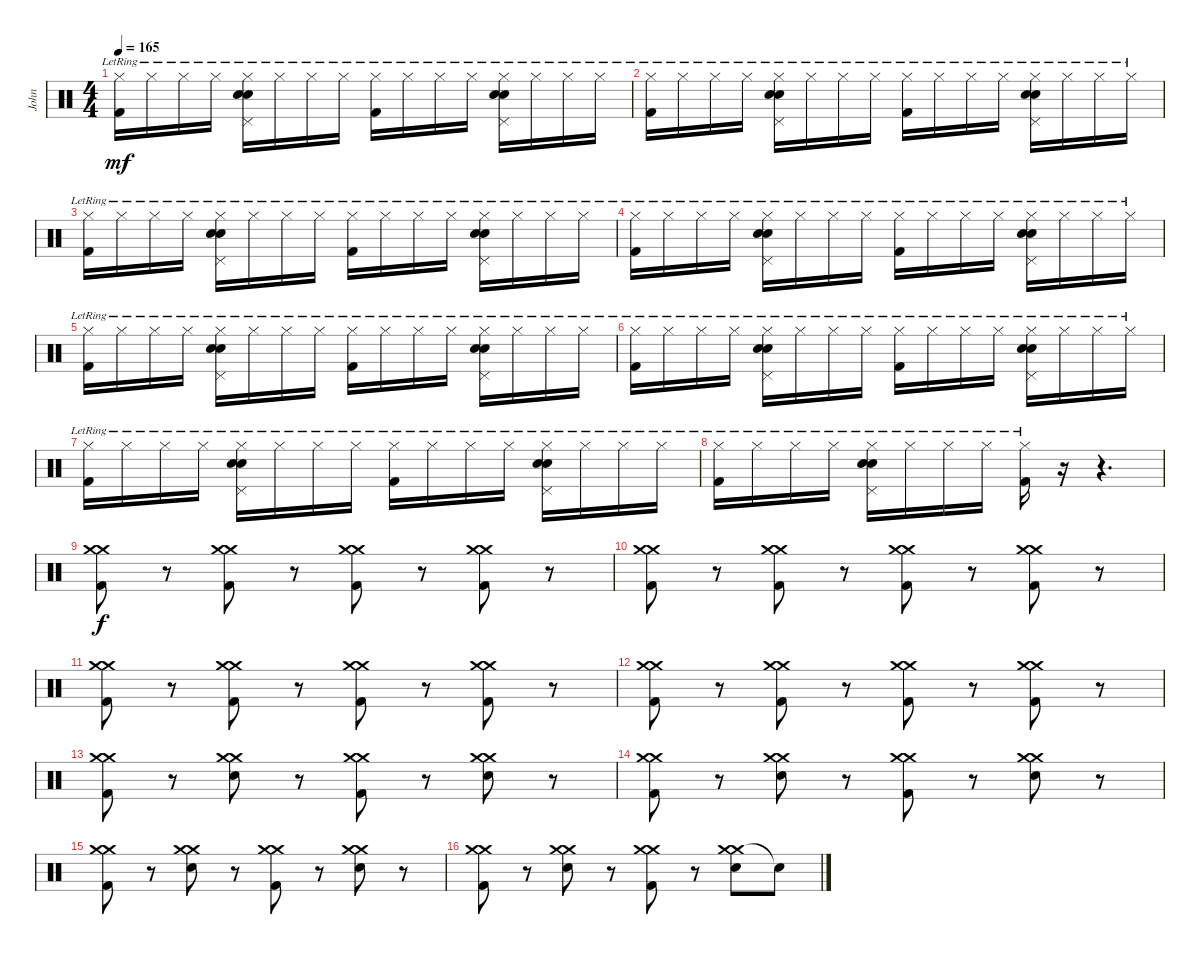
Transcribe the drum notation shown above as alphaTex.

\track ("John" "John") {instrument percussion}
\staff {score}
\articulation defaults
\ts (4 4)
\tempo 165
\clef neutral
\ks c
("Hi-Hat (closed)"{lr} "Kick (hit) 2").16{dy mf} "Hi-Hat (closed)"{lr}.16 "Hi-Hat (closed)"{lr}.16 "Hi-Hat (closed)"{lr}.16 ("Hi-Hat (closed)"{lr} "Pedal Hi-Hat (hit)" "Electric Snare (hit)" "Electric Snare (hit)").16 "Hi-Hat (closed)"{lr}.16 "Hi-Hat (closed)"{lr}.16 "Hi-Hat (closed)"{lr}.16 ("Hi-Hat (closed)"{lr} "Kick (hit) 2").16 "Hi-Hat (closed)"{lr}.16 "Hi-Hat (closed)"{lr}.16 "Hi-Hat (closed)"{lr}.16 ("Hi-Hat (closed)"{lr} "Pedal Hi-Hat (hit)" "Electric Snare (hit)" "Electric Snare (hit)").16 "Hi-Hat (closed)"{lr}.16 "Hi-Hat (closed)"{lr}.16 "Hi-Hat (closed)"{lr}.16 |
("Hi-Hat (closed)"{lr} "Kick (hit) 2").16 "Hi-Hat (closed)"{lr}.16 "Hi-Hat (closed)"{lr}.16 "Hi-Hat (closed)"{lr}.16 ("Hi-Hat (closed)"{lr} "Pedal Hi-Hat (hit)" "Electric Snare (hit)" "Electric Snare (hit)").16 "Hi-Hat (closed)"{lr}.16 "Hi-Hat (closed)"{lr}.16 "Hi-Hat (closed)"{lr}.16 ("Hi-Hat (closed)"{lr} "Kick (hit) 2").16 "Hi-Hat (closed)"{lr}.16 "Hi-Hat (closed)"{lr}.16 "Hi-Hat (closed)"{lr}.16 ("Hi-Hat (closed)"{lr} "Pedal Hi-Hat (hit)" "Electric Snare (hit)" "Electric Snare (hit)").16 "Hi-Hat (closed)"{lr}.16 "Hi-Hat (closed)"{lr}.16 "Hi-Hat (closed)"{lr}.16 |
("Hi-Hat (closed)"{lr} "Kick (hit) 2").16 "Hi-Hat (closed)"{lr}.16 "Hi-Hat (closed)"{lr}.16 "Hi-Hat (closed)"{lr}.16 ("Hi-Hat (closed)"{lr} "Pedal Hi-Hat (hit)" "Electric Snare (hit)" "Electric Snare (hit)").16 "Hi-Hat (closed)"{lr}.16 "Hi-Hat (closed)"{lr}.16 "Hi-Hat (closed)"{lr}.16 ("Hi-Hat (closed)"{lr} "Kick (hit) 2").16 "Hi-Hat (closed)"{lr}.16 "Hi-Hat (closed)"{lr}.16 "Hi-Hat (closed)"{lr}.16 ("Hi-Hat (closed)"{lr} "Pedal Hi-Hat (hit)" "Electric Snare (hit)" "Electric Snare (hit)").16 "Hi-Hat (closed)"{lr}.16 "Hi-Hat (closed)"{lr}.16 "Hi-Hat (closed)"{lr}.16 |
("Hi-Hat (closed)"{lr} "Kick (hit) 2").16 "Hi-Hat (closed)"{lr}.16 "Hi-Hat (closed)"{lr}.16 "Hi-Hat (closed)"{lr}.16 ("Hi-Hat (closed)"{lr} "Pedal Hi-Hat (hit)" "Electric Snare (hit)" "Electric Snare (hit)").16 "Hi-Hat (closed)"{lr}.16 "Hi-Hat (closed)"{lr}.16 "Hi-Hat (closed)"{lr}.16 ("Hi-Hat (closed)"{lr} "Kick (hit) 2").16 "Hi-Hat (closed)"{lr}.16 "Hi-Hat (closed)"{lr}.16 "Hi-Hat (closed)"{lr}.16 ("Hi-Hat (closed)"{lr} "Pedal Hi-Hat (hit)" "Electric Snare (hit)" "Electric Snare (hit)").16 "Hi-Hat (closed)"{lr}.16 "Hi-Hat (closed)"{lr}.16 "Hi-Hat (closed)"{lr}.16 |
("Hi-Hat (closed)"{lr} "Kick (hit) 2").16 "Hi-Hat (closed)"{lr}.16 "Hi-Hat (closed)"{lr}.16 "Hi-Hat (closed)"{lr}.16 ("Hi-Hat (closed)"{lr} "Pedal Hi-Hat (hit)" "Electric Snare (hit)" "Electric Snare (hit)").16 "Hi-Hat (closed)"{lr}.16 "Hi-Hat (closed)"{lr}.16 "Hi-Hat (closed)"{lr}.16 ("Hi-Hat (closed)"{lr} "Kick (hit) 2").16 "Hi-Hat (closed)"{lr}.16 "Hi-Hat (closed)"{lr}.16 "Hi-Hat (closed)"{lr}.16 ("Hi-Hat (closed)"{lr} "Pedal Hi-Hat (hit)" "Electric Snare (hit)" "Electric Snare (hit)").16 "Hi-Hat (closed)"{lr}.16 "Hi-Hat (closed)"{lr}.16 "Hi-Hat (closed)"{lr}.16 |
("Hi-Hat (closed)"{lr} "Kick (hit) 2").16 "Hi-Hat (closed)"{lr}.16 "Hi-Hat (closed)"{lr}.16 "Hi-Hat (closed)"{lr}.16 ("Hi-Hat (closed)"{lr} "Pedal Hi-Hat (hit)" "Electric Snare (hit)" "Electric Snare (hit)").16 "Hi-Hat (closed)"{lr}.16 "Hi-Hat (closed)"{lr}.16 "Hi-Hat (closed)"{lr}.16 ("Hi-Hat (closed)"{lr} "Kick (hit) 2").16 "Hi-Hat (closed)"{lr}.16 "Hi-Hat (closed)"{lr}.16 "Hi-Hat (closed)"{lr}.16 ("Hi-Hat (closed)"{lr} "Pedal Hi-Hat (hit)" "Electric Snare (hit)" "Electric Snare (hit)").16 "Hi-Hat (closed)"{lr}.16 "Hi-Hat (closed)"{lr}.16 "Hi-Hat (closed)"{lr}.16 |
("Hi-Hat (closed)"{lr} "Kick (hit) 2").16 "Hi-Hat (closed)"{lr}.16 "Hi-Hat (closed)"{lr}.16 "Hi-Hat (closed)"{lr}.16 ("Hi-Hat (closed)"{lr} "Pedal Hi-Hat (hit)" "Electric Snare (hit)" "Electric Snare (hit)").16 "Hi-Hat (closed)"{lr}.16 "Hi-Hat (closed)"{lr}.16 "Hi-Hat (closed)"{lr}.16 ("Hi-Hat (closed)"{lr} "Kick (hit) 2").16 "Hi-Hat (closed)"{lr}.16 "Hi-Hat (closed)"{lr}.16 "Hi-Hat (closed)"{lr}.16 ("Hi-Hat (closed)"{lr} "Pedal Hi-Hat (hit)" "Electric Snare (hit)" "Electric Snare (hit)").16 "Hi-Hat (closed)"{lr}.16 "Hi-Hat (closed)"{lr}.16 "Hi-Hat (closed)"{lr}.16 |
("Hi-Hat (closed)"{lr} "Kick (hit) 2").16 "Hi-Hat (closed)"{lr}.16 "Hi-Hat (closed)"{lr}.16 "Hi-Hat (closed)"{lr}.16 ("Hi-Hat (closed)"{lr} "Pedal Hi-Hat (hit)" "Electric Snare (hit)" "Electric Snare (hit)").16 "Hi-Hat (closed)"{lr}.16 "Hi-Hat (closed)"{lr}.16 "Hi-Hat (closed)"{lr}.16 ("Hi-Hat (closed)"{lr} "Kick (hit) 2").16 r.16 r.4{d} |
("Crash medium (hit)" "Crash medium (hit)" "Kick (hit) 2").8{dy f} r.8 ("Crash medium (hit)" "Crash medium (hit)" "Kick (hit) 2").8 r.8 ("Crash medium (hit)" "Crash medium (hit)" "Kick (hit) 2").8 r.8 ("Crash medium (hit)" "Crash medium (hit)" "Kick (hit) 2").8 r.8 |
("Crash medium (hit)" "Crash medium (hit)" "Kick (hit) 2").8 r.8 ("Crash medium (hit)" "Crash medium (hit)" "Kick (hit) 2").8 r.8 ("Crash medium (hit)" "Crash medium (hit)" "Kick (hit) 2").8 r.8 ("Crash medium (hit)" "Crash medium (hit)" "Kick (hit) 2").8 r.8 |
("Crash medium (hit)" "Crash medium (hit)" "Kick (hit) 2").8 r.8 ("Crash medium (hit)" "Crash medium (hit)" "Kick (hit) 2").8 r.8 ("Crash medium (hit)" "Crash medium (hit)" "Kick (hit) 2").8 r.8 ("Crash medium (hit)" "Crash medium (hit)" "Kick (hit) 2").8 r.8 |
("Crash medium (hit)" "Crash medium (hit)" "Kick (hit) 2").8 r.8 ("Crash medium (hit)" "Crash medium (hit)" "Kick (hit) 2").8 r.8 ("Crash medium (hit)" "Crash medium (hit)" "Kick (hit) 2").8 r.8 ("Crash medium (hit)" "Crash medium (hit)" "Kick (hit) 2").8 r.8 |
("Crash medium (hit)" "Crash medium (hit)" "Kick (hit) 2").8 r.8 ("Crash medium (hit)" "Crash medium (hit)" "Electric Snare (hit)").8 r.8 ("Crash medium (hit)" "Crash medium (hit)" "Kick (hit) 2").8 r.8 ("Crash medium (hit)" "Crash medium (hit)" "Electric Snare (hit)").8 r.8 |
("Crash medium (hit)" "Crash medium (hit)" "Kick (hit) 2").8 r.8 ("Crash medium (hit)" "Crash medium (hit)" "Electric Snare (hit)").8 r.8 ("Crash medium (hit)" "Crash medium (hit)" "Kick (hit) 2").8 r.8 ("Crash medium (hit)" "Crash medium (hit)" "Electric Snare (hit)").8 r.8 |
("Crash medium (hit)" "Crash medium (hit)" "Kick (hit) 2").8 r.8 ("Crash medium (hit)" "Crash medium (hit)" "Electric Snare (hit)").8 r.8 ("Crash medium (hit)" "Crash medium (hit)" "Kick (hit) 2").8 r.8 ("Crash medium (hit)" "Crash medium (hit)" "Electric Snare (hit)").8 r.8 |
("Crash medium (hit)" "Crash medium (hit)" "Kick (hit) 2").8 r.8 ("Crash medium (hit)" "Crash medium (hit)" "Electric Snare (hit)").8 r.8 ("Crash medium (hit)" "Crash medium (hit)" "Kick (hit) 2").8 r.8 ("Crash medium (hit)" "Crash medium (hit)" "Electric Snare (hit)").8 "Snare (hit)"{t}.8
